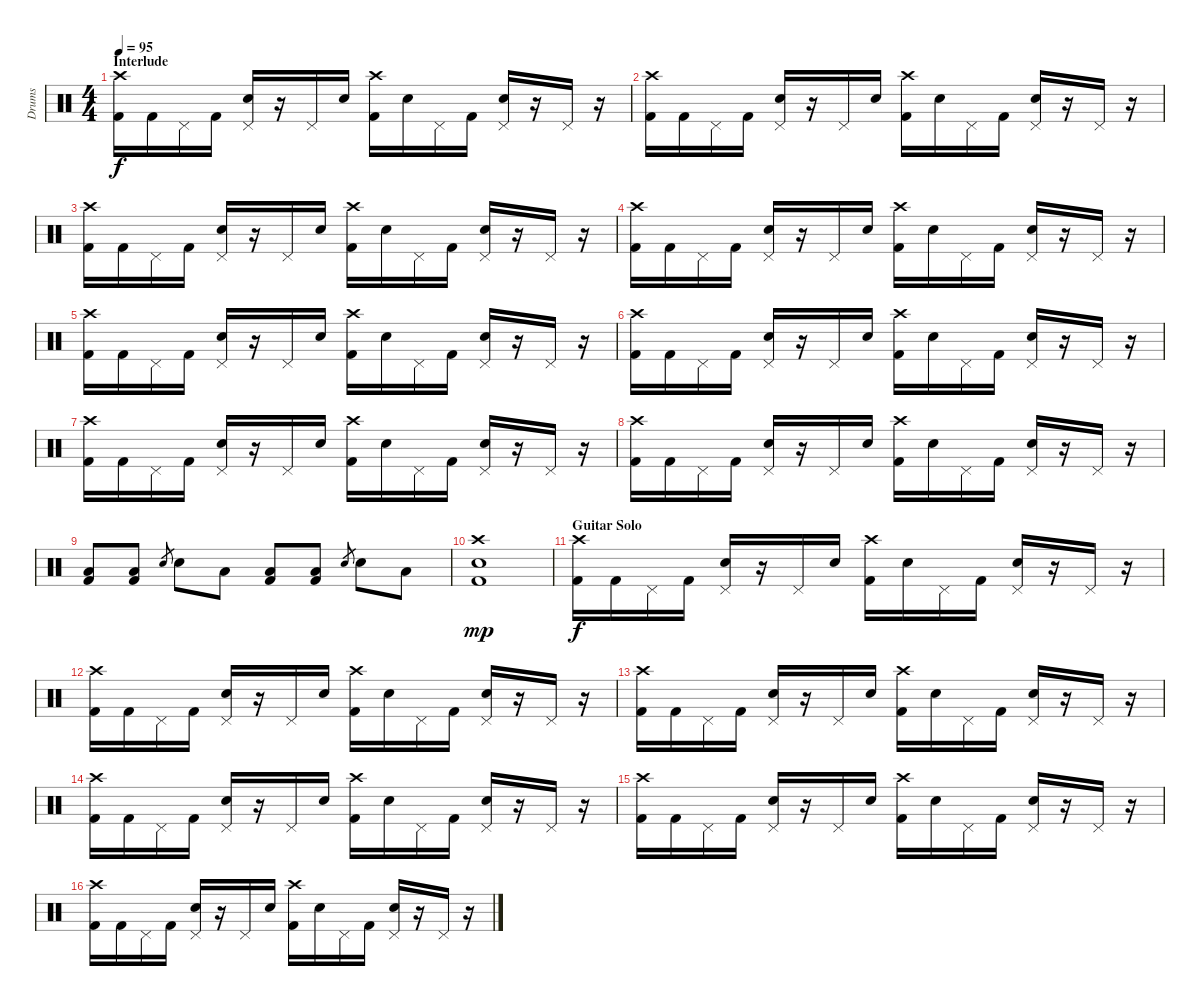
\track ("Drums" "Drums") {instrument percussion}
\staff {score}
\articulation defaults
\ts (4 4)
\section ("" "Interlude")
\tempo 95
\clef neutral
\ks c
("Crash high (hit)" "Kick (hit) 2").16{dy f} "Kick (hit) 2".16 "Pedal Hi-Hat (hit)".16 "Kick (hit) 2".16 ("Pedal Hi-Hat (hit)" "Electric Snare (hit)").16 r.16 "Pedal Hi-Hat (hit)".16 "Electric Snare (hit)".16 ("Crash high (hit)" "Kick (hit) 2").16 "Electric Snare (hit)".16 "Pedal Hi-Hat (hit)".16 "Kick (hit) 2".16 ("Pedal Hi-Hat (hit)" "Electric Snare (hit)").16 r.16 "Pedal Hi-Hat (hit)".16 r.16 |
("Crash high (hit)" "Kick (hit) 2").16 "Kick (hit) 2".16 "Pedal Hi-Hat (hit)".16 "Kick (hit) 2".16 ("Pedal Hi-Hat (hit)" "Electric Snare (hit)").16 r.16 "Pedal Hi-Hat (hit)".16 "Electric Snare (hit)".16 ("Crash high (hit)" "Kick (hit) 2").16 "Electric Snare (hit)".16 "Pedal Hi-Hat (hit)".16 "Kick (hit) 2".16 ("Pedal Hi-Hat (hit)" "Electric Snare (hit)").16 r.16 "Pedal Hi-Hat (hit)".16 r.16 |
("Crash high (hit)" "Kick (hit) 2").16 "Kick (hit) 2".16 "Pedal Hi-Hat (hit)".16 "Kick (hit) 2".16 ("Pedal Hi-Hat (hit)" "Electric Snare (hit)").16 r.16 "Pedal Hi-Hat (hit)".16 "Electric Snare (hit)".16 ("Crash high (hit)" "Kick (hit) 2").16 "Electric Snare (hit)".16 "Pedal Hi-Hat (hit)".16 "Kick (hit) 2".16 ("Pedal Hi-Hat (hit)" "Electric Snare (hit)").16 r.16 "Pedal Hi-Hat (hit)".16 r.16 |
("Crash high (hit)" "Kick (hit) 2").16 "Kick (hit) 2".16 "Pedal Hi-Hat (hit)".16 "Kick (hit) 2".16 ("Pedal Hi-Hat (hit)" "Electric Snare (hit)").16 r.16 "Pedal Hi-Hat (hit)".16 "Electric Snare (hit)".16 ("Crash high (hit)" "Kick (hit) 2").16 "Electric Snare (hit)".16 "Pedal Hi-Hat (hit)".16 "Kick (hit) 2".16 ("Pedal Hi-Hat (hit)" "Electric Snare (hit)").16 r.16 "Pedal Hi-Hat (hit)".16 r.16 |
("Crash high (hit)" "Kick (hit) 2").16 "Kick (hit) 2".16 "Pedal Hi-Hat (hit)".16 "Kick (hit) 2".16 ("Pedal Hi-Hat (hit)" "Electric Snare (hit)").16 r.16 "Pedal Hi-Hat (hit)".16 "Electric Snare (hit)".16 ("Crash high (hit)" "Kick (hit) 2").16 "Electric Snare (hit)".16 "Pedal Hi-Hat (hit)".16 "Kick (hit) 2".16 ("Pedal Hi-Hat (hit)" "Electric Snare (hit)").16 r.16 "Pedal Hi-Hat (hit)".16 r.16 |
("Crash high (hit)" "Kick (hit) 2").16 "Kick (hit) 2".16 "Pedal Hi-Hat (hit)".16 "Kick (hit) 2".16 ("Pedal Hi-Hat (hit)" "Electric Snare (hit)").16 r.16 "Pedal Hi-Hat (hit)".16 "Electric Snare (hit)".16 ("Crash high (hit)" "Kick (hit) 2").16 "Electric Snare (hit)".16 "Pedal Hi-Hat (hit)".16 "Kick (hit) 2".16 ("Pedal Hi-Hat (hit)" "Electric Snare (hit)").16 r.16 "Pedal Hi-Hat (hit)".16 r.16 |
("Crash high (hit)" "Kick (hit) 2").16 "Kick (hit) 2".16 "Pedal Hi-Hat (hit)".16 "Kick (hit) 2".16 ("Pedal Hi-Hat (hit)" "Electric Snare (hit)").16 r.16 "Pedal Hi-Hat (hit)".16 "Electric Snare (hit)".16 ("Crash high (hit)" "Kick (hit) 2").16 "Electric Snare (hit)".16 "Pedal Hi-Hat (hit)".16 "Kick (hit) 2".16 ("Pedal Hi-Hat (hit)" "Electric Snare (hit)").16 r.16 "Pedal Hi-Hat (hit)".16 r.16 |
("Crash high (hit)" "Kick (hit) 2").16 "Kick (hit) 2".16 "Pedal Hi-Hat (hit)".16 "Kick (hit) 2".16 ("Pedal Hi-Hat (hit)" "Electric Snare (hit)").16 r.16 "Pedal Hi-Hat (hit)".16 "Electric Snare (hit)".16 ("Crash high (hit)" "Kick (hit) 2").16 "Electric Snare (hit)".16 "Pedal Hi-Hat (hit)".16 "Kick (hit) 2".16 ("Pedal Hi-Hat (hit)" "Electric Snare (hit)").16 r.16 "Pedal Hi-Hat (hit)".16 r.16 |
("Low Tom (hit)" "Kick (hit) 2").8 ("Low Tom (hit)" "Kick (hit) 2").8 "Electric Snare (hit)".8{gr} "Electric Snare (hit)".8 "Low Tom (hit)".8 ("Low Tom (hit)" "Kick (hit) 2").8 ("Low Tom (hit)" "Kick (hit) 2").8 "Electric Snare (hit)".8{gr} "Electric Snare (hit)".8 "Low Tom (hit)".8 |
("Crash high (hit)" "Electric Snare (hit)" "Kick (hit) 2").1{dy mp} |
\section ("" "Guitar Solo")
("Crash high (hit)" "Kick (hit) 2").16{dy f} "Kick (hit) 2".16 "Pedal Hi-Hat (hit)".16 "Kick (hit) 2".16 ("Pedal Hi-Hat (hit)" "Electric Snare (hit)").16 r.16 "Pedal Hi-Hat (hit)".16 "Electric Snare (hit)".16 ("Crash high (hit)" "Kick (hit) 2").16 "Electric Snare (hit)".16 "Pedal Hi-Hat (hit)".16 "Kick (hit) 2".16 ("Pedal Hi-Hat (hit)" "Electric Snare (hit)").16 r.16 "Pedal Hi-Hat (hit)".16 r.16 |
("Crash high (hit)" "Kick (hit) 2").16 "Kick (hit) 2".16 "Pedal Hi-Hat (hit)".16 "Kick (hit) 2".16 ("Pedal Hi-Hat (hit)" "Electric Snare (hit)").16 r.16 "Pedal Hi-Hat (hit)".16 "Electric Snare (hit)".16 ("Crash high (hit)" "Kick (hit) 2").16 "Electric Snare (hit)".16 "Pedal Hi-Hat (hit)".16 "Kick (hit) 2".16 ("Pedal Hi-Hat (hit)" "Electric Snare (hit)").16 r.16 "Pedal Hi-Hat (hit)".16 r.16 |
("Crash high (hit)" "Kick (hit) 2").16 "Kick (hit) 2".16 "Pedal Hi-Hat (hit)".16 "Kick (hit) 2".16 ("Pedal Hi-Hat (hit)" "Electric Snare (hit)").16 r.16 "Pedal Hi-Hat (hit)".16 "Electric Snare (hit)".16 ("Crash high (hit)" "Kick (hit) 2").16 "Electric Snare (hit)".16 "Pedal Hi-Hat (hit)".16 "Kick (hit) 2".16 ("Pedal Hi-Hat (hit)" "Electric Snare (hit)").16 r.16 "Pedal Hi-Hat (hit)".16 r.16 |
("Crash high (hit)" "Kick (hit) 2").16 "Kick (hit) 2".16 "Pedal Hi-Hat (hit)".16 "Kick (hit) 2".16 ("Pedal Hi-Hat (hit)" "Electric Snare (hit)").16 r.16 "Pedal Hi-Hat (hit)".16 "Electric Snare (hit)".16 ("Crash high (hit)" "Kick (hit) 2").16 "Electric Snare (hit)".16 "Pedal Hi-Hat (hit)".16 "Kick (hit) 2".16 ("Pedal Hi-Hat (hit)" "Electric Snare (hit)").16 r.16 "Pedal Hi-Hat (hit)".16 r.16 |
("Crash high (hit)" "Kick (hit) 2").16 "Kick (hit) 2".16 "Pedal Hi-Hat (hit)".16 "Kick (hit) 2".16 ("Pedal Hi-Hat (hit)" "Electric Snare (hit)").16 r.16 "Pedal Hi-Hat (hit)".16 "Electric Snare (hit)".16 ("Crash high (hit)" "Kick (hit) 2").16 "Electric Snare (hit)".16 "Pedal Hi-Hat (hit)".16 "Kick (hit) 2".16 ("Pedal Hi-Hat (hit)" "Electric Snare (hit)").16 r.16 "Pedal Hi-Hat (hit)".16 r.16 |
("Crash high (hit)" "Kick (hit) 2").16 "Kick (hit) 2".16 "Pedal Hi-Hat (hit)".16 "Kick (hit) 2".16 ("Pedal Hi-Hat (hit)" "Electric Snare (hit)").16 r.16 "Pedal Hi-Hat (hit)".16 "Electric Snare (hit)".16 ("Crash high (hit)" "Kick (hit) 2").16 "Electric Snare (hit)".16 "Pedal Hi-Hat (hit)".16 "Kick (hit) 2".16 ("Pedal Hi-Hat (hit)" "Electric Snare (hit)").16 r.16 "Pedal Hi-Hat (hit)".16 r.16
